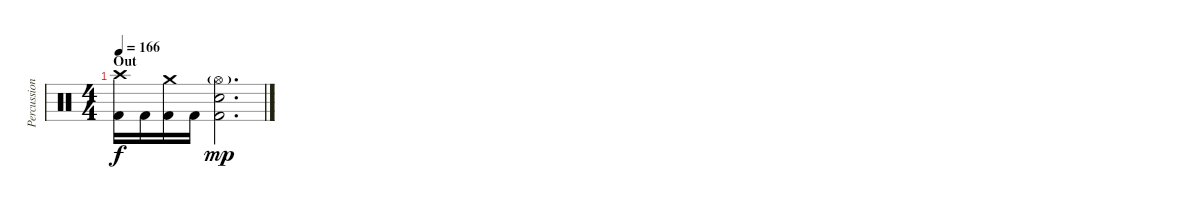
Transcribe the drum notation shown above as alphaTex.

\track ("Percussion" "Percussion") {instrument percussion}
\staff {score}
\articulation defaults
\ts (4 4)
\section ("" "Out")
\tempo 166
\clef neutral
\ks c
("Kick (hit) 2" "Crash high (hit)").16{dy f} "Kick (hit) 2".16 ("Kick (hit) 2" "Crash medium (hit)").16 "Kick (hit) 2".16 ("Kick (hit) 2" "Electric Snare (hit)" "Hi-Hat (open)"{g}).2{d dy mp}
